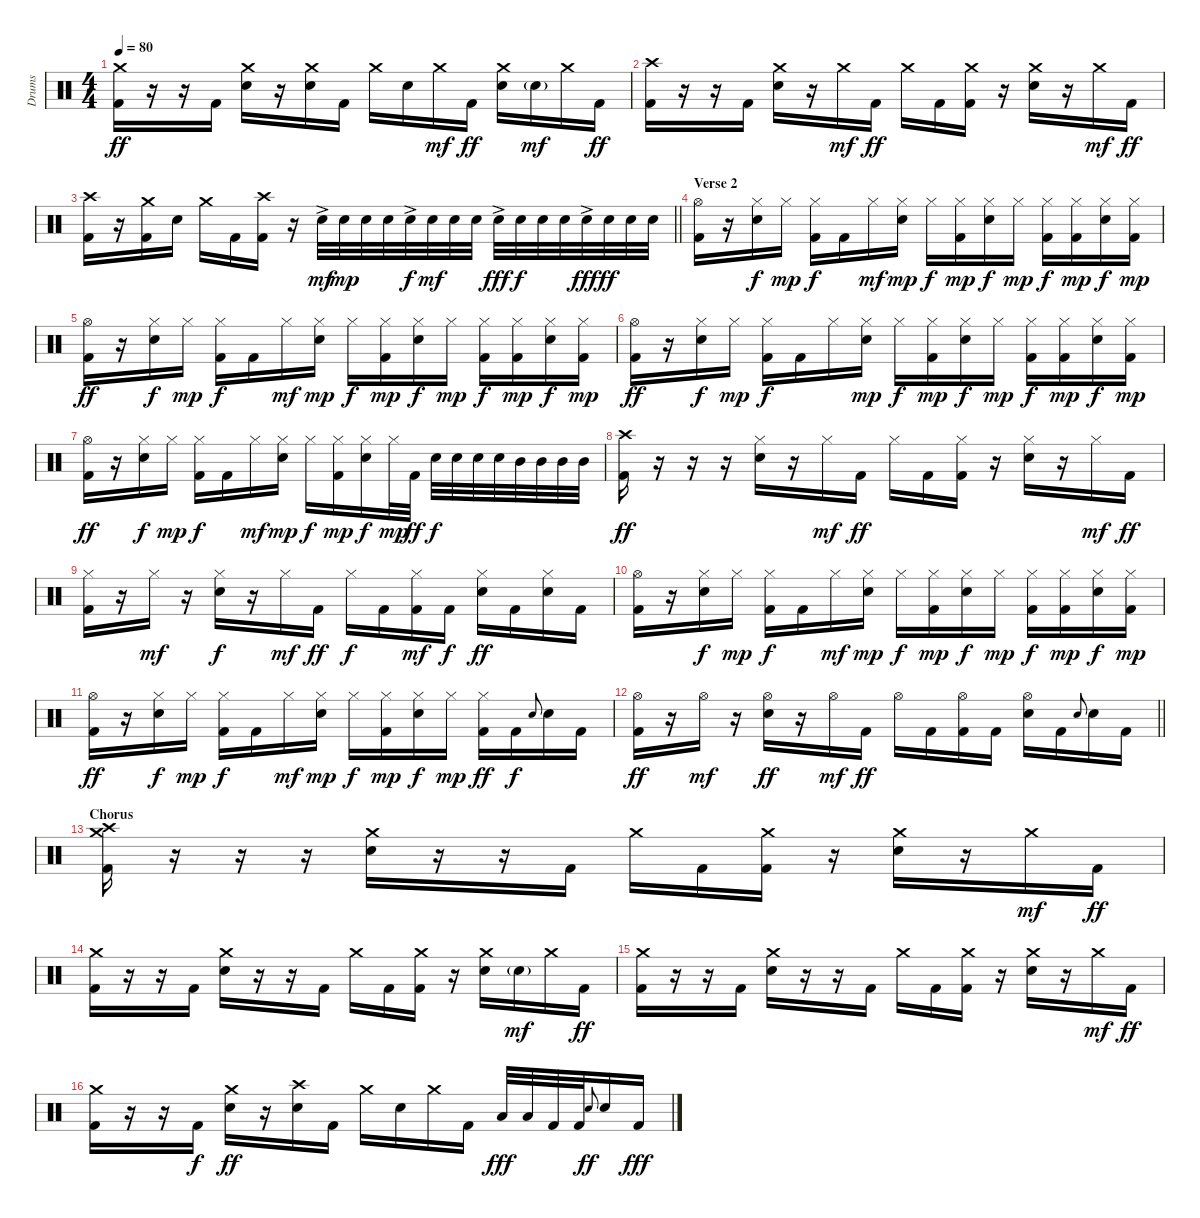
\track ("Drums" "Drums") {instrument percussion}
\staff {score}
\articulation defaults
\ts (4 4)
\tempo 80
\clef neutral
\ks c
("Crash medium (hit)" "Kick (hit) 2").16{dy ff} r.16 r.16 "Kick (hit) 2".16 ("Crash medium (hit)" "Electric Snare (hit)").16 r.16 ("Crash medium (hit)" "Electric Snare (hit)").16 "Kick (hit) 2".16 "Crash medium (hit)".16 "Electric Snare (hit)".16 "Crash medium (hit)".16{dy mf} "Kick (hit) 2".16{dy ff} ("Crash medium (hit)" "Electric Snare (hit)").16 "Electric Snare (hit)"{g}.16{dy mf} "Crash medium (hit)".16 "Kick (hit) 2".16{dy ff} |
("Crash high (hit)" "Kick (hit) 2").16 r.16 r.16 "Kick (hit) 2".16 ("Crash medium (hit)" "Electric Snare (hit)").16 r.16 "Crash medium (hit)".16{dy mf} "Kick (hit) 2".16{dy ff} "Crash medium (hit)".16 "Kick (hit) 2".16 ("Crash medium (hit)" "Kick (hit) 2").16 r.16 ("Crash medium (hit)" "Electric Snare (hit)").16 r.16 "Crash medium (hit)".16{dy mf} "Kick (hit) 2".16{dy ff} |
\barLineRight lightlight
("Crash high (hit)" "Kick (hit) 2").16 r.16 ("Crash medium (hit)" "Kick (hit) 2").16 "Electric Snare (hit)".16 "Crash medium (hit)".16 "Kick (hit) 2".16 ("Crash high (hit)" "Kick (hit) 2").16 r.16 "Electric Snare (hit)"{ac}.32{dy mf} "Electric Snare (hit)".32{dy mp} "Electric Snare (hit)".32 "Electric Snare (hit)".32 "Electric Snare (hit)"{ac}.32{dy f} "Electric Snare (hit)".32{dy mf} "Electric Snare (hit)".32 "Electric Snare (hit)".32 "Electric Snare (hit)"{ac}.32{dy fff} "Electric Snare (hit)".32{dy f} "Electric Snare (hit)".32 "Electric Snare (hit)".32 "Electric Snare (hit)"{ac}.32{dy fff} "Electric Snare (hit)".32{dy ff} "Electric Snare (hit)".32 "Electric Snare (hit)".32 |
\section ("" "Verse 2")
("Hi-Hat (open)" "Kick (hit) 2").16 r.16 ("Hi-Hat (closed)" "Electric Snare (hit)").16{dy f} "Hi-Hat (closed)".16{dy mp} ("Hi-Hat (closed)" "Kick (hit) 2").16{dy f} "Kick (hit) 2".16 "Hi-Hat (closed)".16{dy mf} ("Hi-Hat (closed)" "Electric Snare (hit)").16{dy mp} "Hi-Hat (closed)".16{dy f} ("Hi-Hat (closed)" "Kick (hit) 2").16{dy mp} ("Hi-Hat (closed)" "Electric Snare (hit)").16{dy f} "Hi-Hat (closed)".16{dy mp} ("Hi-Hat (closed)" "Kick (hit) 2").16{dy f} ("Hi-Hat (closed)" "Kick (hit) 2").16{dy mp} ("Hi-Hat (closed)" "Electric Snare (hit)").16{dy f} ("Hi-Hat (closed)" "Kick (hit) 2").16{dy mp} |
("Hi-Hat (open)" "Kick (hit) 2").16{dy ff} r.16 ("Hi-Hat (closed)" "Electric Snare (hit)").16{dy f} "Hi-Hat (closed)".16{dy mp} ("Hi-Hat (closed)" "Kick (hit) 2").16{dy f} "Kick (hit) 2".16 "Hi-Hat (closed)".16{dy mf} ("Hi-Hat (closed)" "Electric Snare (hit)").16{dy mp} "Hi-Hat (closed)".16{dy f} ("Hi-Hat (closed)" "Kick (hit) 2").16{dy mp} ("Hi-Hat (closed)" "Electric Snare (hit)").16{dy f} "Hi-Hat (closed)".16{dy mp} ("Hi-Hat (closed)" "Kick (hit) 2").16{dy f} ("Hi-Hat (closed)" "Kick (hit) 2").16{dy mp} ("Hi-Hat (closed)" "Electric Snare (hit)").16{dy f} ("Hi-Hat (closed)" "Kick (hit) 2").16{dy mp} |
("Hi-Hat (open)" "Kick (hit) 2").16{dy ff} r.16 ("Hi-Hat (closed)" "Electric Snare (hit)").16{dy f} "Hi-Hat (closed)".16{dy mp} ("Hi-Hat (closed)" "Kick (hit) 2").16{dy f} "Kick (hit) 2".16 "Hi-Hat (closed)".16 ("Hi-Hat (closed)" "Electric Snare (hit)").16{dy mp} "Hi-Hat (closed)".16{dy f} ("Hi-Hat (closed)" "Kick (hit) 2").16{dy mp} ("Hi-Hat (closed)" "Electric Snare (hit)").16{dy f} "Hi-Hat (closed)".16{dy mp} ("Hi-Hat (closed)" "Kick (hit) 2").16{dy f} ("Hi-Hat (closed)" "Kick (hit) 2").16{dy mp} ("Hi-Hat (closed)" "Electric Snare (hit)").16{dy f} ("Hi-Hat (closed)" "Kick (hit) 2").16{dy mp} |
("Hi-Hat (open)" "Kick (hit) 2").16{dy ff} r.16 ("Hi-Hat (closed)" "Electric Snare (hit)").16{dy f} "Hi-Hat (closed)".16{dy mp} ("Hi-Hat (closed)" "Kick (hit) 2").16{dy f} "Kick (hit) 2".16 "Hi-Hat (closed)".16{dy mf} ("Hi-Hat (closed)" "Electric Snare (hit)").16{dy mp} "Hi-Hat (closed)".16{dy f} ("Hi-Hat (closed)" "Kick (hit) 2").16{dy mp} ("Hi-Hat (closed)" "Electric Snare (hit)").16{dy f} "Hi-Hat (closed)".32{dy mp} "Kick (hit) 2".32{dy ff} "Electric Snare (hit)".32{dy f} "Electric Snare (hit)".32 "Electric Snare (hit)".32 "Electric Snare (hit)".32 "Mid Tom (hit)".32 "Mid Tom (hit)".32 "Mid Tom (hit)".32 "Mid Tom (hit)".32 |
("Crash high (hit)" "Kick (hit) 2").16{dy ff} r.16 r.16 r.16 ("Hi-Hat (closed)" "Electric Snare (hit)").16 r.16 "Hi-Hat (closed)".16{dy mf} "Kick (hit) 2".16{dy ff} "Hi-Hat (closed)".16 "Kick (hit) 2".16 ("Hi-Hat (closed)" "Kick (hit) 2").16 r.16 ("Hi-Hat (closed)" "Electric Snare (hit)").16 r.16 "Hi-Hat (closed)".16{dy mf} "Kick (hit) 2".16{dy ff} |
("Hi-Hat (closed)" "Kick (hit) 2").16 r.16 "Hi-Hat (closed)".16{dy mf} r.16 ("Hi-Hat (closed)" "Electric Snare (hit)").16{dy f} r.16 "Hi-Hat (closed)".16{dy mf} "Kick (hit) 2".16{dy ff} "Hi-Hat (closed)".16{dy f} "Kick (hit) 2".16 ("Hi-Hat (closed)" "Kick (hit) 2").16{dy mf} "Kick (hit) 2".16{dy f} ("Hi-Hat (closed)" "Electric Snare (hit)").16{dy ff} "Kick (hit) 2".16 ("Hi-Hat (closed)" "Electric Snare (hit)").16 "Kick (hit) 2".16 |
("Hi-Hat (open)" "Kick (hit) 2").16 r.16 ("Hi-Hat (closed)" "Electric Snare (hit)").16{dy f} "Hi-Hat (closed)".16{dy mp} ("Hi-Hat (closed)" "Kick (hit) 2").16{dy f} "Kick (hit) 2".16 "Hi-Hat (closed)".16{dy mf} ("Hi-Hat (closed)" "Electric Snare (hit)").16{dy mp} "Hi-Hat (closed)".16{dy f} ("Hi-Hat (closed)" "Kick (hit) 2").16{dy mp} ("Hi-Hat (closed)" "Electric Snare (hit)").16{dy f} "Hi-Hat (closed)".16{dy mp} ("Hi-Hat (closed)" "Kick (hit) 2").16{dy f} ("Hi-Hat (closed)" "Kick (hit) 2").16{dy mp} ("Hi-Hat (closed)" "Electric Snare (hit)").16{dy f} ("Hi-Hat (closed)" "Kick (hit) 2").16{dy mp} |
("Hi-Hat (open)" "Kick (hit) 2").16{dy ff} r.16 ("Hi-Hat (closed)" "Electric Snare (hit)").16{dy f} "Hi-Hat (closed)".16{dy mp} ("Hi-Hat (closed)" "Kick (hit) 2").16{dy f} "Kick (hit) 2".16 "Hi-Hat (closed)".16{dy mf} ("Hi-Hat (closed)" "Electric Snare (hit)").16{dy mp} "Hi-Hat (closed)".16{dy f} ("Hi-Hat (closed)" "Kick (hit) 2").16{dy mp} ("Hi-Hat (closed)" "Electric Snare (hit)").16{dy f} "Hi-Hat (closed)".16{dy mp} ("Hi-Hat (closed)" "Kick (hit) 2").16{dy ff} "Kick (hit) 2".16{dy f} "Electric Snare (hit)".8{gr onbeat} "Electric Snare (hit)".16 "Kick (hit) 2".16 |
\barLineRight lightlight
("Hi-Hat (open)" "Kick (hit) 2").16{dy ff} r.16 "Hi-Hat (open)".16{dy mf} r.16 ("Hi-Hat (open)" "Electric Snare (hit)").16{dy ff} r.16 "Hi-Hat (open)".16{dy mf} "Kick (hit) 2".16{dy ff} "Hi-Hat (open)".16 "Kick (hit) 2".16 ("Hi-Hat (open)" "Kick (hit) 2").16 "Kick (hit) 2".16 ("Hi-Hat (open)" "Electric Snare (hit)").16 "Kick (hit) 2".16 "Electric Snare (hit)".8{gr onbeat} "Electric Snare (hit)".16 "Kick (hit) 2".16 |
\section ("" "Chorus")
("Crash medium (hit)" "Crash high (hit)" "Kick (hit) 2").16 r.16 r.16 r.16 ("Crash medium (hit)" "Electric Snare (hit)").16 r.16 r.16 "Kick (hit) 2".16 "Crash medium (hit)".16 "Kick (hit) 2".16 ("Crash medium (hit)" "Kick (hit) 2").16 r.16 ("Crash medium (hit)" "Electric Snare (hit)").16 r.16 "Crash medium (hit)".16{dy mf} "Kick (hit) 2".16{dy ff} |
("Crash medium (hit)" "Kick (hit) 2").16 r.16 r.16 "Kick (hit) 2".16 ("Crash medium (hit)" "Electric Snare (hit)").16 r.16 r.16 "Kick (hit) 2".16 "Crash medium (hit)".16 "Kick (hit) 2".16 ("Crash medium (hit)" "Kick (hit) 2").16 r.16 ("Crash medium (hit)" "Electric Snare (hit)").16 "Electric Snare (hit)"{g}.16{dy mf} "Crash medium (hit)".16 "Kick (hit) 2".16{dy ff} |
("Crash medium (hit)" "Kick (hit) 2").16 r.16 r.16 "Kick (hit) 2".16 ("Crash medium (hit)" "Electric Snare (hit)").16 r.16 r.16 "Kick (hit) 2".16 "Crash medium (hit)".16 "Kick (hit) 2".16 ("Crash medium (hit)" "Kick (hit) 2").16 r.16 ("Crash medium (hit)" "Electric Snare (hit)").16 r.16 "Crash medium (hit)".16{dy mf} "Kick (hit) 2".16{dy ff} |
("Crash medium (hit)" "Kick (hit) 2").16 r.16 r.16 "Kick (hit) 2".16{dy f} ("Crash medium (hit)" "Electric Snare (hit)").16{dy ff} r.16 ("Crash high (hit)" "Electric Snare (hit)").16 "Kick (hit) 2".16 "Crash medium (hit)".16 "Electric Snare (hit)".16 "Crash medium (hit)".16 "Kick (hit) 2".16 "Low Tom (hit)".32{dy fff} "Low Tom (hit)".32 "Kick (hit) 2".32 "Kick (hit) 2".32 "Electric Snare (hit)".8{gr onbeat dy ff} "Electric Snare (hit)".16 "Kick (hit) 2".16{dy fff}
